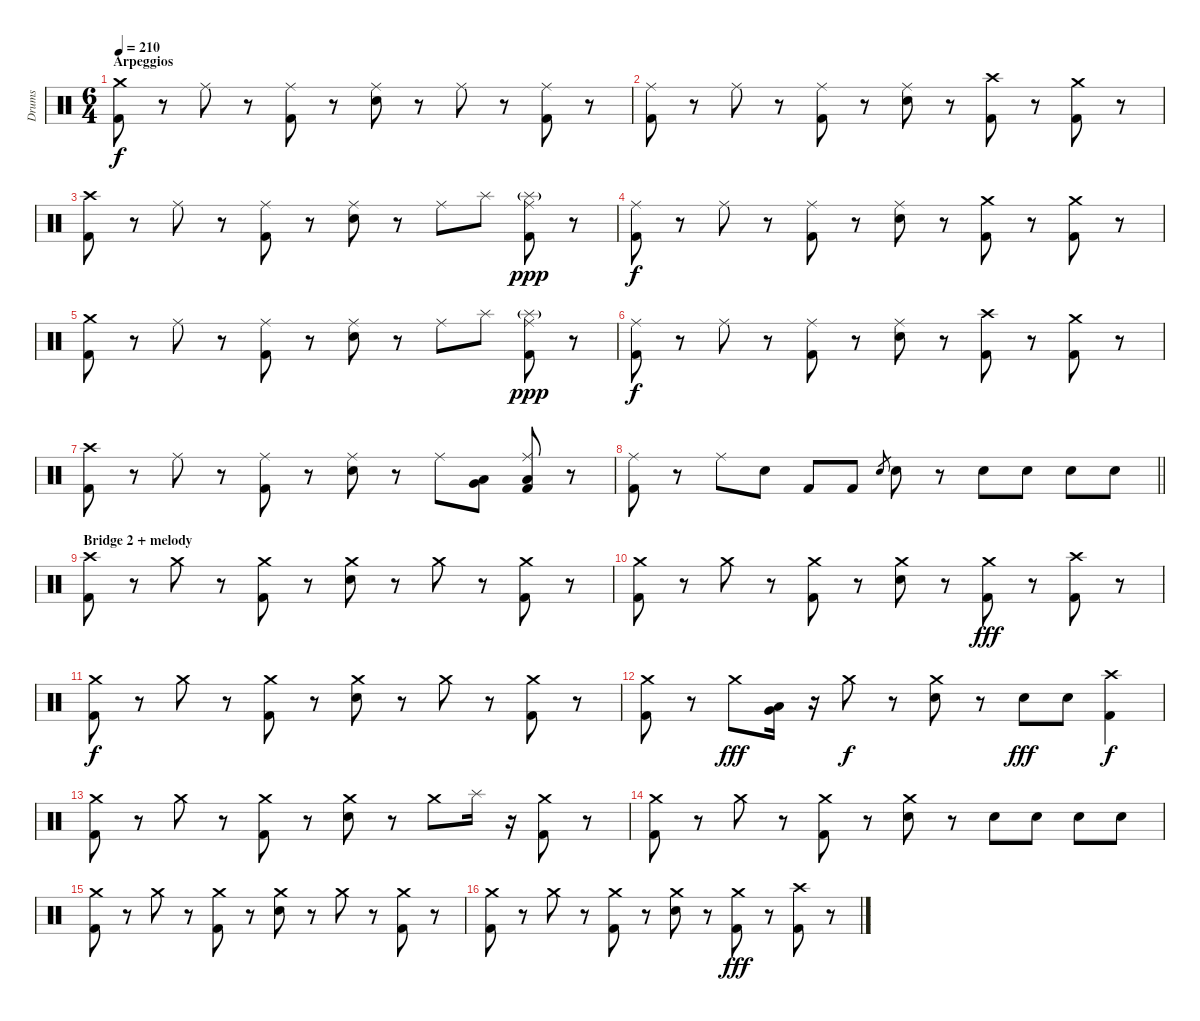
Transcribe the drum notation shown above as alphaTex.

\track ("Drums" "Drums") {instrument percussion}
\staff {score}
\articulation defaults
\ts (6 4)
\section ("" "Arpeggios")
\tempo 210
\clef neutral
\ks c
("Crash medium (hit)" "Kick (hit) 2").8{dy f} r.8 "Ride (middle)".8 r.8 ("Ride (middle)" "Kick (hit) 2").8 r.8 ("Ride (middle)" "Electric Snare (hit)").8 r.8 "Ride (middle)".8 r.8 ("Ride (middle)" "Kick (hit) 2").8 r.8 |
("Ride (middle)" "Kick (hit) 2").8 r.8 "Ride (middle)".8 r.8 ("Ride (middle)" "Kick (hit) 2").8 r.8 ("Ride (middle)" "Electric Snare (hit)").8 r.8 ("Crash high (hit)" "Kick (hit) 2").8 r.8 ("Crash medium (hit)" "Kick (hit) 2").8 r.8 |
("Crash high (hit)" "Kick (hit) 2").8 r.8 "Ride (middle)".8 r.8 ("Ride (middle)" "Kick (hit) 2").8 r.8 ("Ride (middle)" "Electric Snare (hit)").8 r.8 "Ride (middle)".8 "Splash (hit)".8 ("Splash (hit)"{g} "Ride (middle)" "Kick (hit) 2").8{dy ppp} r.8 |
("Ride (middle)" "Kick (hit) 2").8{dy f} r.8 "Ride (middle)".8 r.8 ("Ride (middle)" "Kick (hit) 2").8 r.8 ("Ride (middle)" "Electric Snare (hit)").8 r.8 ("Crash medium (hit)" "Kick (hit) 2").8 r.8 ("Crash medium (hit)" "Kick (hit) 2").8 r.8 |
("Crash medium (hit)" "Kick (hit) 2").8 r.8 "Ride (middle)".8 r.8 ("Ride (middle)" "Kick (hit) 2").8 r.8 ("Ride (middle)" "Electric Snare (hit)").8 r.8 "Ride (middle)".8 "Splash (hit)".8 ("Splash (hit)"{g} "Ride (middle)" "Kick (hit) 2").8{dy ppp} r.8 |
("Ride (middle)" "Kick (hit) 2").8{dy f} r.8 "Ride (middle)".8 r.8 ("Ride (middle)" "Kick (hit) 2").8 r.8 ("Ride (middle)" "Electric Snare (hit)").8 r.8 ("Crash high (hit)" "Kick (hit) 2").8 r.8 ("Crash medium (hit)" "Kick (hit) 2").8 r.8 |
("Crash high (hit)" "Kick (hit) 2").8 r.8 "Ride (middle)".8 r.8 ("Ride (middle)" "Kick (hit) 2").8 r.8 ("Ride (middle)" "Electric Snare (hit)").8 r.8 "Ride (middle)".8 ("Low Tom (hit)" "Very Low Tom (hit)").8 ("Ride (middle)" "Low Tom (hit)" "Kick (hit) 2").8 r.8 |
\barLineRight lightlight
("Ride (middle)" "Kick (hit) 2").8 r.8 "Ride (middle)".8 "Electric Snare (hit)".8 "Kick (hit) 2".8 "Kick (hit) 2".8 "Electric Snare (hit)".8{gr} "Electric Snare (hit)".8 r.8 "Electric Snare (hit)".8 "Electric Snare (hit)".8 "Electric Snare (hit)".8 "Electric Snare (hit)".8 |
\section ("" "Bridge 2 + melody")
("Crash high (hit)" "Kick (hit) 2").8 r.8 "Crash medium (hit)".8 r.8 ("Crash medium (hit)" "Kick (hit) 2").8 r.8 ("Crash medium (hit)" "Electric Snare (hit)").8 r.8 "Crash medium (hit)".8 r.8 ("Crash medium (hit)" "Kick (hit) 2").8 r.8 |
("Crash medium (hit)" "Kick (hit) 2").8 r.8 "Crash medium (hit)".8 r.8 ("Crash medium (hit)" "Kick (hit) 2").8 r.8 ("Crash medium (hit)" "Electric Snare (hit)").8 r.8 ("Crash medium (hit)" "Kick (hit) 2").8{dy fff} r.8 ("Crash high (hit)" "Kick (hit) 2").8 r.8 |
("Crash medium (hit)" "Kick (hit) 2").8{dy f} r.8 "Crash medium (hit)".8 r.8 ("Crash medium (hit)" "Kick (hit) 2").8 r.8 ("Crash medium (hit)" "Electric Snare (hit)").8 r.8 "Crash medium (hit)".8 r.8 ("Crash medium (hit)" "Kick (hit) 2").8 r.8 |
("Crash medium (hit)" "Kick (hit) 2").8 r.8 "Crash medium (hit)".8{dy fff} ("Very Low Tom (hit)" "Low Floor Tom (hit)").16 r.16 "Crash medium (hit)".8{dy f} r.8 ("Crash medium (hit)" "Electric Snare (hit)").8 r.8 "Electric Snare (hit)".8{dy fff} "Electric Snare (hit)".8 ("Crash high (hit)" "Kick (hit) 2").4{dy f} |
("Crash medium (hit)" "Kick (hit) 2").8 r.8 "Crash medium (hit)".8 r.8 ("Crash medium (hit)" "Kick (hit) 2").8 r.8 ("Crash medium (hit)" "Electric Snare (hit)").8 r.8 "Crash medium (hit)".8 "Splash (hit)".16 r.16 ("Crash medium (hit)" "Kick (hit) 2").8 r.8 |
("Crash medium (hit)" "Kick (hit) 2").8 r.8 "Crash medium (hit)".8 r.8 ("Crash medium (hit)" "Kick (hit) 2").8 r.8 ("Crash medium (hit)" "Electric Snare (hit)").8 r.8 "Electric Snare (hit)".8 "Electric Snare (hit)".8 "Electric Snare (hit)".8 "Electric Snare (hit)".8 |
("Crash medium (hit)" "Kick (hit) 2").8 r.8 "Crash medium (hit)".8 r.8 ("Crash medium (hit)" "Kick (hit) 2").8 r.8 ("Crash medium (hit)" "Electric Snare (hit)").8 r.8 "Crash medium (hit)".8 r.8 ("Crash medium (hit)" "Kick (hit) 2").8 r.8 |
("Crash medium (hit)" "Kick (hit) 2").8 r.8 "Crash medium (hit)".8 r.8 ("Crash medium (hit)" "Kick (hit) 2").8 r.8 ("Crash medium (hit)" "Electric Snare (hit)").8 r.8 ("Crash medium (hit)" "Kick (hit) 2").8{dy fff} r.8 ("Crash high (hit)" "Kick (hit) 2").8 r.8
